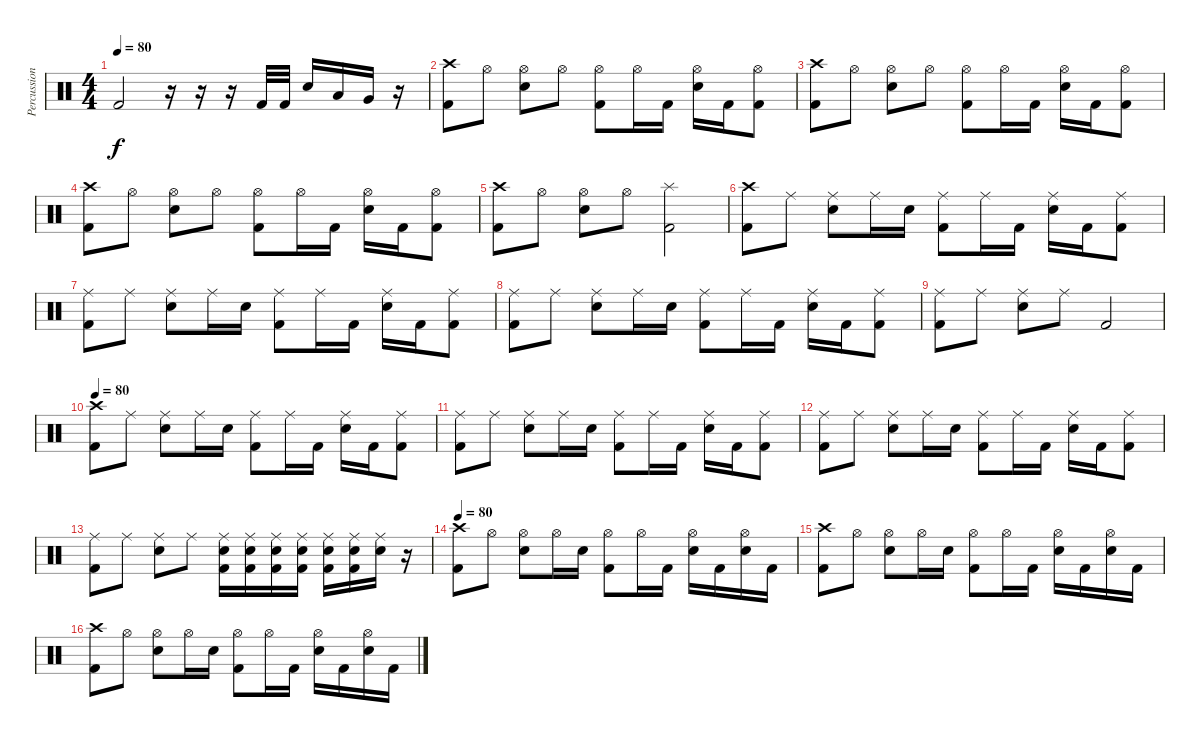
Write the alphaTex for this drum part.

\track ("Percussion" "Percussion") {instrument percussion}
\staff {score}
\articulation defaults
\ts (4 4)
\tempo 80
\clef neutral
\ks c "Kick (hit) 2".2{dy f}
r.16 r.16 r.16 "Kick (hit) 2".32 "Kick (hit) 2".32 "Electric Snare (hit)".16 "Low Tom (hit)".16 "Very Low Tom (hit)".16 r.16 |
("Crash high (hit)" "Kick (hit) 2").8 "Hi-Hat (open)".8 ("Hi-Hat (open)" "Electric Snare (hit)").8 "Hi-Hat (open)".8 ("Hi-Hat (open)" "Kick (hit) 2").8 "Hi-Hat (open)".16 "Kick (hit) 2".16 ("Hi-Hat (open)" "Electric Snare (hit)").16 "Kick (hit) 2".16 ("Hi-Hat (open)" "Kick (hit) 2").8 |
("Crash high (hit)" "Kick (hit) 2").8 "Hi-Hat (open)".8 ("Hi-Hat (open)" "Electric Snare (hit)").8 "Hi-Hat (open)".8 ("Hi-Hat (open)" "Kick (hit) 2").8 "Hi-Hat (open)".16 "Kick (hit) 2".16 ("Hi-Hat (open)" "Electric Snare (hit)").16 "Kick (hit) 2".16 ("Hi-Hat (open)" "Kick (hit) 2").8 |
("Crash high (hit)" "Kick (hit) 2").8 "Hi-Hat (open)".8 ("Hi-Hat (open)" "Electric Snare (hit)").8 "Hi-Hat (open)".8 ("Hi-Hat (open)" "Kick (hit) 2").8 "Hi-Hat (open)".16 "Kick (hit) 2".16 ("Hi-Hat (open)" "Electric Snare (hit)").16 "Kick (hit) 2".16 ("Hi-Hat (open)" "Kick (hit) 2").8 |
("Crash high (hit)" "Kick (hit) 2").8 "Hi-Hat (open)".8 ("Hi-Hat (open)" "Electric Snare (hit)").8 "Hi-Hat (open)".8 ("Splash (hit)" "Kick (hit) 2").2 |
("Crash high (hit)" "Kick (hit) 2").8 "Ride (middle)".8 ("Ride (middle)" "Electric Snare (hit)").8 "Ride (middle)".16 "Electric Snare (hit)".16 ("Ride (middle)" "Kick (hit) 2").8 "Ride (middle)".16 "Kick (hit) 2".16 ("Ride (middle)" "Electric Snare (hit)").16 "Kick (hit) 2".16 ("Ride (middle)" "Kick (hit) 2").8 |
("Ride (middle)" "Kick (hit) 2").8 "Ride (middle)".8 ("Ride (middle)" "Electric Snare (hit)").8 "Ride (middle)".16 "Electric Snare (hit)".16 ("Ride (middle)" "Kick (hit) 2").8 "Ride (middle)".16 "Kick (hit) 2".16 ("Ride (middle)" "Electric Snare (hit)").16 "Kick (hit) 2".16 ("Ride (middle)" "Kick (hit) 2").8 |
("Ride (middle)" "Kick (hit) 2").8 "Ride (middle)".8 ("Ride (middle)" "Electric Snare (hit)").8 "Ride (middle)".16 "Electric Snare (hit)".16 ("Ride (middle)" "Kick (hit) 2").8 "Ride (middle)".16 "Kick (hit) 2".16 ("Ride (middle)" "Electric Snare (hit)").16 "Kick (hit) 2".16 ("Ride (middle)" "Kick (hit) 2").8 |
("Ride (middle)" "Kick (hit) 2").8 "Ride (middle)".8 ("Ride (middle)" "Electric Snare (hit)").8 "Ride (middle)".8 "Kick (hit) 2".2 |
\tempo 80
("Crash high (hit)" "Kick (hit) 2").8 "Ride (middle)".8 ("Ride (middle)" "Electric Snare (hit)").8 "Ride (middle)".16 "Electric Snare (hit)".16 ("Ride (middle)" "Kick (hit) 2").8 "Ride (middle)".16 "Kick (hit) 2".16 ("Ride (middle)" "Electric Snare (hit)").16 "Kick (hit) 2".16 ("Ride (middle)" "Kick (hit) 2").8 |
("Ride (middle)" "Kick (hit) 2").8 "Ride (middle)".8 ("Ride (middle)" "Electric Snare (hit)").8 "Ride (middle)".16 "Electric Snare (hit)".16 ("Ride (middle)" "Kick (hit) 2").8 "Ride (middle)".16 "Kick (hit) 2".16 ("Ride (middle)" "Electric Snare (hit)").16 "Kick (hit) 2".16 ("Ride (middle)" "Kick (hit) 2").8 |
("Ride (middle)" "Kick (hit) 2").8 "Ride (middle)".8 ("Ride (middle)" "Electric Snare (hit)").8 "Ride (middle)".16 "Electric Snare (hit)".16 ("Ride (middle)" "Kick (hit) 2").8 "Ride (middle)".16 "Kick (hit) 2".16 ("Ride (middle)" "Electric Snare (hit)").16 "Kick (hit) 2".16 ("Ride (middle)" "Kick (hit) 2").8 |
("Ride (middle)" "Kick (hit) 2").8 "Ride (middle)".8 ("Ride (middle)" "Electric Snare (hit)").8 "Ride (middle)".8 ("Ride (middle)" "Electric Snare (hit)" "Kick (hit) 2").16 ("Ride (middle)" "Electric Snare (hit)" "Kick (hit) 2").16 ("Ride (middle)" "Electric Snare (hit)" "Kick (hit) 2").16 ("Ride (middle)" "Electric Snare (hit)" "Kick (hit) 2").16 ("Ride (middle)" "Electric Snare (hit)" "Kick (hit) 2").16 ("Ride (middle)" "Electric Snare (hit)" "Kick (hit) 2").16 ("Ride (middle)" "Electric Snare (hit)").16 r.16 |
\tempo 80
("Crash high (hit)" "Kick (hit) 2").8 "Hi-Hat (open)".8 ("Hi-Hat (open)" "Electric Snare (hit)").8 "Hi-Hat (open)".16 "Electric Snare (hit)".16 ("Hi-Hat (open)" "Kick (hit) 2").8 "Hi-Hat (open)".16 "Kick (hit) 2".16 ("Hi-Hat (open)" "Electric Snare (hit)").16 "Kick (hit) 2".16 ("Hi-Hat (open)" "Electric Snare (hit)").16 "Kick (hit) 2".16 |
("Crash high (hit)" "Kick (hit) 2").8 "Hi-Hat (open)".8 ("Hi-Hat (open)" "Electric Snare (hit)").8 "Hi-Hat (open)".16 "Electric Snare (hit)".16 ("Hi-Hat (open)" "Kick (hit) 2").8 "Hi-Hat (open)".16 "Kick (hit) 2".16 ("Hi-Hat (open)" "Electric Snare (hit)").16 "Kick (hit) 2".16 ("Hi-Hat (open)" "Electric Snare (hit)").16 "Kick (hit) 2".16 |
("Crash high (hit)" "Kick (hit) 2").8 "Hi-Hat (open)".8 ("Hi-Hat (open)" "Electric Snare (hit)").8 "Hi-Hat (open)".16 "Electric Snare (hit)".16 ("Hi-Hat (open)" "Kick (hit) 2").8 "Hi-Hat (open)".16 "Kick (hit) 2".16 ("Hi-Hat (open)" "Electric Snare (hit)").16 "Kick (hit) 2".16 ("Hi-Hat (open)" "Electric Snare (hit)").16 "Kick (hit) 2".16
